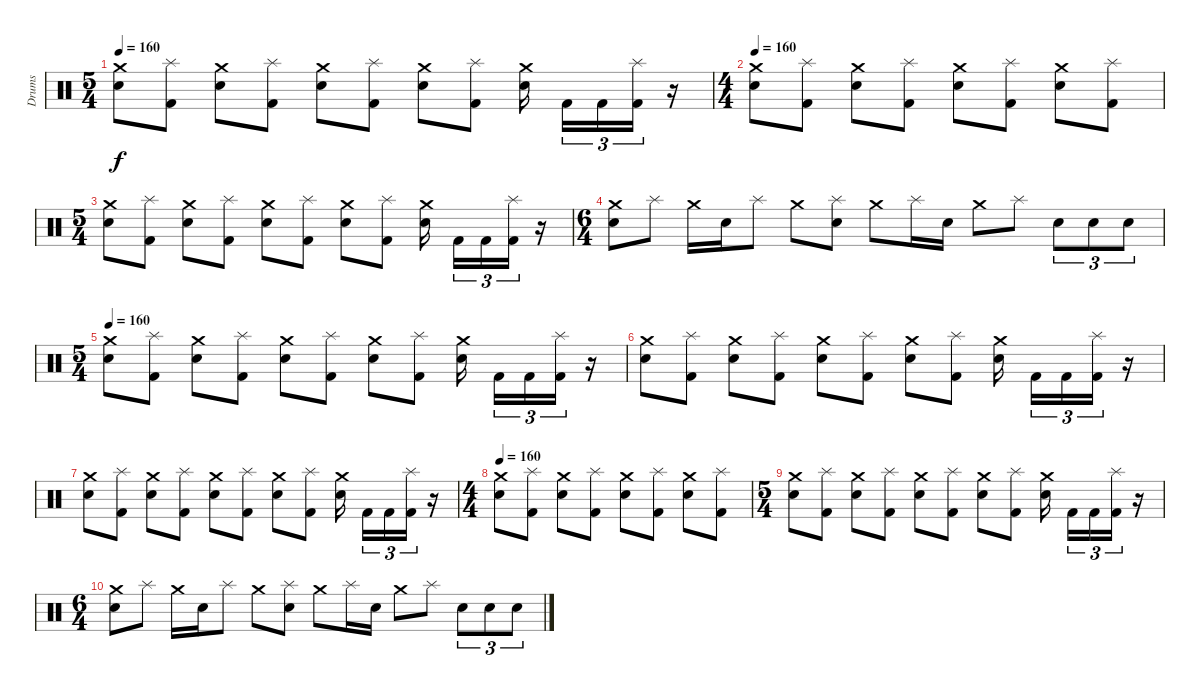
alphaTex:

\track ("Drums" "Drums") {instrument percussion}
\staff {score}
\articulation defaults
\ts (5 4)
\tempo 160
\clef neutral
\ks c
("Electric Snare (hit)" "Crash medium (hit)").8{dy f} ("Kick (hit) 2" "Splash (hit)").8 ("Electric Snare (hit)" "Crash medium (hit)").8 ("Kick (hit) 2" "Splash (hit)").8 ("Electric Snare (hit)" "Crash medium (hit)").8 ("Kick (hit) 2" "Splash (hit)").8 ("Electric Snare (hit)" "Crash medium (hit)").8 ("Kick (hit) 2" "Splash (hit)").8 ("Electric Snare (hit)" "Crash medium (hit)").16 "Kick (hit) 2".16{tu (3 2)} "Kick (hit) 2".16{tu (3 2)} ("Kick (hit) 2" "Splash (hit)").16{tu (3 2)} r.16 |
\ts (4 4)
\tempo 160
("Electric Snare (hit)" "Crash medium (hit)").8 ("Kick (hit) 2" "Splash (hit)").8 ("Electric Snare (hit)" "Crash medium (hit)").8 ("Kick (hit) 2" "Splash (hit)").8 ("Electric Snare (hit)" "Crash medium (hit)").8 ("Kick (hit) 2" "Splash (hit)").8 ("Electric Snare (hit)" "Crash medium (hit)").8 ("Kick (hit) 2" "Splash (hit)").8 |
\ts (5 4)
("Electric Snare (hit)" "Crash medium (hit)").8 ("Kick (hit) 2" "Splash (hit)").8 ("Electric Snare (hit)" "Crash medium (hit)").8 ("Kick (hit) 2" "Splash (hit)").8 ("Electric Snare (hit)" "Crash medium (hit)").8 ("Kick (hit) 2" "Splash (hit)").8 ("Electric Snare (hit)" "Crash medium (hit)").8 ("Kick (hit) 2" "Splash (hit)").8 ("Electric Snare (hit)" "Crash medium (hit)").16 "Kick (hit) 2".16{tu (3 2)} "Kick (hit) 2".16{tu (3 2)} ("Kick (hit) 2" "Splash (hit)").16{tu (3 2)} r.16 |
\ts (6 4)
("Crash medium (hit)" "Electric Snare (hit)").8 "Splash (hit)".8 "Crash medium (hit)".16 "Electric Snare (hit)".16 "Splash (hit)".8 "Crash medium (hit)".8 ("Splash (hit)" "Electric Snare (hit)").8 "Crash medium (hit)".8 "Splash (hit)".16 "Electric Snare (hit)".16 "Crash medium (hit)".8 "Splash (hit)".8 "Electric Snare (hit)".8{tu (3 2)} "Electric Snare (hit)".8{tu (3 2)} "Electric Snare (hit)".8{tu (3 2)} |
\ts (5 4)
\tempo 160
("Electric Snare (hit)" "Crash medium (hit)").8 ("Kick (hit) 2" "Splash (hit)").8 ("Electric Snare (hit)" "Crash medium (hit)").8 ("Kick (hit) 2" "Splash (hit)").8 ("Electric Snare (hit)" "Crash medium (hit)").8 ("Kick (hit) 2" "Splash (hit)").8 ("Electric Snare (hit)" "Crash medium (hit)").8 ("Kick (hit) 2" "Splash (hit)").8 ("Electric Snare (hit)" "Crash medium (hit)").16 "Kick (hit) 2".16{tu (3 2)} "Kick (hit) 2".16{tu (3 2)} ("Kick (hit) 2" "Splash (hit)").16{tu (3 2)} r.16 |
("Electric Snare (hit)" "Crash medium (hit)").8 ("Kick (hit) 2" "Splash (hit)").8 ("Electric Snare (hit)" "Crash medium (hit)").8 ("Kick (hit) 2" "Splash (hit)").8 ("Electric Snare (hit)" "Crash medium (hit)").8 ("Kick (hit) 2" "Splash (hit)").8 ("Electric Snare (hit)" "Crash medium (hit)").8 ("Kick (hit) 2" "Splash (hit)").8 ("Electric Snare (hit)" "Crash medium (hit)").16 "Kick (hit) 2".16{tu (3 2)} "Kick (hit) 2".16{tu (3 2)} ("Kick (hit) 2" "Splash (hit)").16{tu (3 2)} r.16 |
("Electric Snare (hit)" "Crash medium (hit)").8 ("Kick (hit) 2" "Splash (hit)").8 ("Electric Snare (hit)" "Crash medium (hit)").8 ("Kick (hit) 2" "Splash (hit)").8 ("Electric Snare (hit)" "Crash medium (hit)").8 ("Kick (hit) 2" "Splash (hit)").8 ("Electric Snare (hit)" "Crash medium (hit)").8 ("Kick (hit) 2" "Splash (hit)").8 ("Electric Snare (hit)" "Crash medium (hit)").16 "Kick (hit) 2".16{tu (3 2)} "Kick (hit) 2".16{tu (3 2)} ("Kick (hit) 2" "Splash (hit)").16{tu (3 2)} r.16 |
\ts (4 4)
\tempo 160
("Electric Snare (hit)" "Crash medium (hit)").8 ("Kick (hit) 2" "Splash (hit)").8 ("Electric Snare (hit)" "Crash medium (hit)").8 ("Kick (hit) 2" "Splash (hit)").8 ("Electric Snare (hit)" "Crash medium (hit)").8 ("Kick (hit) 2" "Splash (hit)").8 ("Electric Snare (hit)" "Crash medium (hit)").8 ("Kick (hit) 2" "Splash (hit)").8 |
\ts (5 4)
("Electric Snare (hit)" "Crash medium (hit)").8 ("Kick (hit) 2" "Splash (hit)").8 ("Electric Snare (hit)" "Crash medium (hit)").8 ("Kick (hit) 2" "Splash (hit)").8 ("Electric Snare (hit)" "Crash medium (hit)").8 ("Kick (hit) 2" "Splash (hit)").8 ("Electric Snare (hit)" "Crash medium (hit)").8 ("Kick (hit) 2" "Splash (hit)").8 ("Electric Snare (hit)" "Crash medium (hit)").16 "Kick (hit) 2".16{tu (3 2)} "Kick (hit) 2".16{tu (3 2)} ("Kick (hit) 2" "Splash (hit)").16{tu (3 2)} r.16 |
\ts (6 4)
("Crash medium (hit)" "Electric Snare (hit)").8 "Splash (hit)".8 "Crash medium (hit)".16 "Electric Snare (hit)".16 "Splash (hit)".8 "Crash medium (hit)".8 ("Splash (hit)" "Electric Snare (hit)").8 "Crash medium (hit)".8 "Splash (hit)".16 "Electric Snare (hit)".16 "Crash medium (hit)".8 "Splash (hit)".8 "Electric Snare (hit)".8{tu (3 2)} "Electric Snare (hit)".8{tu (3 2)} "Electric Snare (hit)".8{tu (3 2)}
